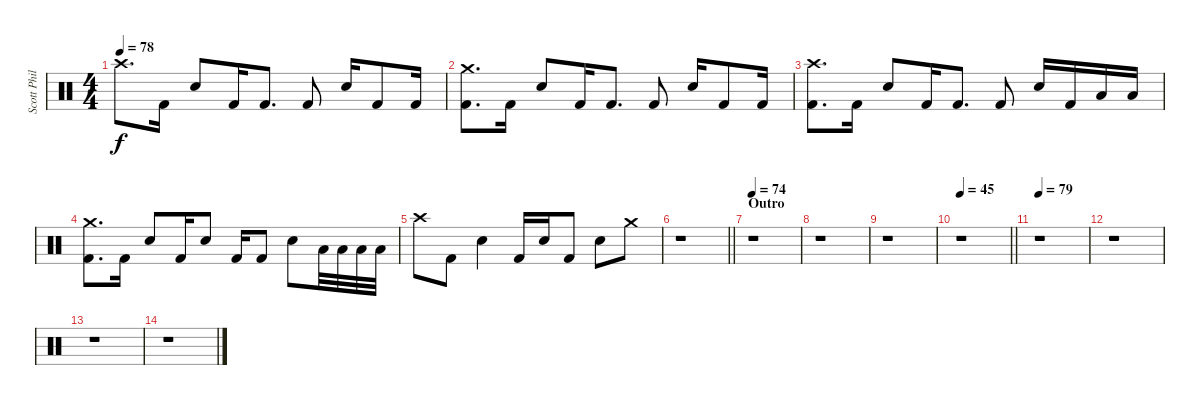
\track ("Scott Phillips (Drums)" "Scott Phil") {instrument percussion}
\staff {score}
\articulation defaults
\ts (4 4)
\tempo 78
\clef neutral
\ks c "Crash high (hit)".8{d dy f} "Kick (hit) 2".16 "Electric Snare (hit)".8 "Kick (hit) 2".16 "Kick (hit) 2".8{d} "Kick (hit) 2".8 "Electric Snare (hit)".16 "Kick (hit) 2".8 "Kick (hit) 2".16
|
("Crash medium (hit)" "Kick (hit) 2").8{d} "Kick (hit) 2".16 "Electric Snare (hit)".8 "Kick (hit) 2".16 "Kick (hit) 2".8{d} "Kick (hit) 2".8 "Electric Snare (hit)".16 "Kick (hit) 2".8 "Kick (hit) 2".16 |
("Crash high (hit)" "Kick (hit) 2").8{d} "Kick (hit) 2".16 "Electric Snare (hit)".8 "Kick (hit) 2".16 "Kick (hit) 2".8{d} "Kick (hit) 2".8 "Electric Snare (hit)".16 "Kick (hit) 2".16 "Low Tom (hit)".16 "Low Tom (hit)".16 |
("Crash medium (hit)" "Kick (hit) 2").8{d} "Kick (hit) 2".16 "Electric Snare (hit)".8 "Kick (hit) 2".16 "Electric Snare (hit)".8 "Kick (hit) 2".16 "Kick (hit) 2".8 "Electric Snare (hit)".8 "Low Tom (hit)".32 "Low Tom (hit)".32 "Low Tom (hit)".32 "Low Tom (hit)".32 |
"Crash high (hit)".8 "Kick (hit) 2".8 "Electric Snare (hit)".4 "Kick (hit) 2".16 "Electric Snare (hit)".16 "Kick (hit) 2".8 "Electric Snare (hit)".8 "Crash medium (hit)".8 |
\barLineRight lightlight
r.1 |
\section ("" "Outro")
\tempo 74
r.1 |
r.1 |
r.1 |
\tempo 45
\barLineRight lightlight
r.1 |
\tempo 79
r.1 |
r.1 |
r.1 |
r.1
